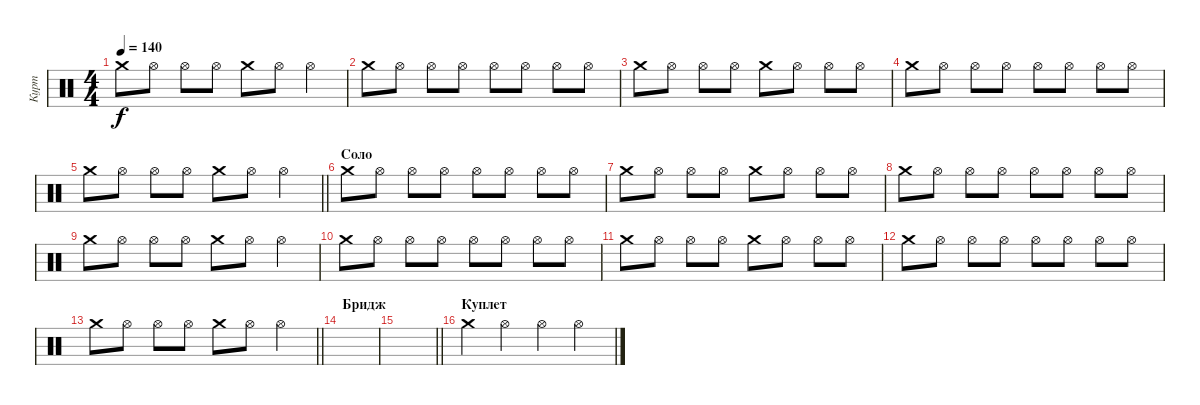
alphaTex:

\track ("Курт" "Курт") {instrument percussion}
\staff {score}
\articulation defaults
\ts (4 4)
\tempo 140
\clef neutral
\ks c "Crash medium (hit)".8{dy f} "Hi-Hat (open)".8 "Hi-Hat (open)".8 "Hi-Hat (open)".8 "Crash medium (hit)".8 "Hi-Hat (open)".8 "Hi-Hat (open)".4
|
"Crash medium (hit)".8 "Hi-Hat (open)".8 "Hi-Hat (open)".8 "Hi-Hat (open)".8 "Hi-Hat (open)".8 "Hi-Hat (open)".8 "Hi-Hat (open)".8 "Hi-Hat (open)".8 |
"Crash medium (hit)".8 "Hi-Hat (open)".8 "Hi-Hat (open)".8 "Hi-Hat (open)".8 "Crash medium (hit)".8 "Hi-Hat (open)".8 "Hi-Hat (open)".8 "Hi-Hat (open)".8 |
"Crash medium (hit)".8 "Hi-Hat (open)".8 "Hi-Hat (open)".8 "Hi-Hat (open)".8 "Hi-Hat (open)".8 "Hi-Hat (open)".8 "Hi-Hat (open)".8 "Hi-Hat (open)".8 |
\barLineRight lightlight "Crash medium (hit)".8 "Hi-Hat (open)".8 "Hi-Hat (open)".8 "Hi-Hat (open)".8 "Crash medium (hit)".8 "Hi-Hat (open)".8 "Hi-Hat (open)".4
|
\section ("" "Соло")
"Crash medium (hit)".8 "Hi-Hat (open)".8 "Hi-Hat (open)".8 "Hi-Hat (open)".8 "Hi-Hat (open)".8 "Hi-Hat (open)".8 "Hi-Hat (open)".8 "Hi-Hat (open)".8 |
"Crash medium (hit)".8 "Hi-Hat (open)".8 "Hi-Hat (open)".8 "Hi-Hat (open)".8 "Crash medium (hit)".8 "Hi-Hat (open)".8 "Hi-Hat (open)".8 "Hi-Hat (open)".8 |
"Crash medium (hit)".8 "Hi-Hat (open)".8 "Hi-Hat (open)".8 "Hi-Hat (open)".8 "Hi-Hat (open)".8 "Hi-Hat (open)".8 "Hi-Hat (open)".8 "Hi-Hat (open)".8 |
"Crash medium (hit)".8 "Hi-Hat (open)".8 "Hi-Hat (open)".8 "Hi-Hat (open)".8 "Crash medium (hit)".8 "Hi-Hat (open)".8 "Hi-Hat (open)".4 |
"Crash medium (hit)".8 "Hi-Hat (open)".8 "Hi-Hat (open)".8 "Hi-Hat (open)".8 "Hi-Hat (open)".8 "Hi-Hat (open)".8 "Hi-Hat (open)".8 "Hi-Hat (open)".8 |
"Crash medium (hit)".8 "Hi-Hat (open)".8 "Hi-Hat (open)".8 "Hi-Hat (open)".8 "Crash medium (hit)".8 "Hi-Hat (open)".8 "Hi-Hat (open)".8 "Hi-Hat (open)".8 |
"Crash medium (hit)".8 "Hi-Hat (open)".8 "Hi-Hat (open)".8 "Hi-Hat (open)".8 "Hi-Hat (open)".8 "Hi-Hat (open)".8 "Hi-Hat (open)".8 "Hi-Hat (open)".8 |
\barLineRight lightlight "Crash medium (hit)".8 "Hi-Hat (open)".8 "Hi-Hat (open)".8 "Hi-Hat (open)".8 "Crash medium (hit)".8 "Hi-Hat (open)".8 "Hi-Hat (open)".4
|
\section ("" "Бридж")
|
\barLineRight lightlight
|
\section ("" "Куплет")
"Crash medium (hit)".4 "Hi-Hat (open)".4 "Hi-Hat (open)".4 "Hi-Hat (open)".4
